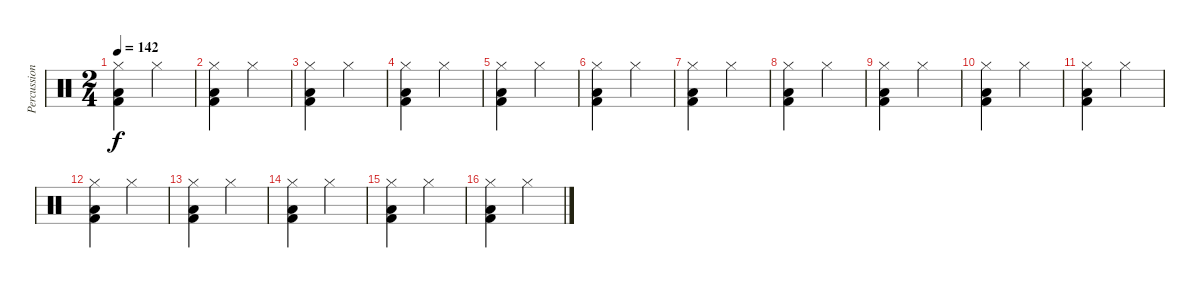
\track ("Percussions" "Percussion") {instrument percussion}
\staff {score}
\articulation defaults
\ts (2 4)
\tempo 142
\clef neutral
\ks c
("Hi-Hat (closed)" "Low Tom (hit)" "Kick (hit) 2").4{dy f} "Hi-Hat (closed)".4 |
("Hi-Hat (closed)" "Low Tom (hit)" "Kick (hit) 2").4 "Hi-Hat (closed)".4 |
("Hi-Hat (closed)" "Low Tom (hit)" "Kick (hit) 2").4 "Hi-Hat (closed)".4 |
("Hi-Hat (closed)" "Low Tom (hit)" "Kick (hit) 2").4 "Hi-Hat (closed)".4 |
("Hi-Hat (closed)" "Low Tom (hit)" "Kick (hit) 2").4 "Hi-Hat (closed)".4 |
("Hi-Hat (closed)" "Low Tom (hit)" "Kick (hit) 2").4 "Hi-Hat (closed)".4 |
("Hi-Hat (closed)" "Low Tom (hit)" "Kick (hit) 2").4 "Hi-Hat (closed)".4 |
("Hi-Hat (closed)" "Low Tom (hit)" "Kick (hit) 2").4 "Hi-Hat (closed)".4 |
("Hi-Hat (closed)" "Low Tom (hit)" "Kick (hit) 2").4 "Hi-Hat (closed)".4 |
("Hi-Hat (closed)" "Low Tom (hit)" "Kick (hit) 2").4 "Hi-Hat (closed)".4 |
("Hi-Hat (closed)" "Low Tom (hit)" "Kick (hit) 2").4 "Hi-Hat (closed)".4 |
("Hi-Hat (closed)" "Low Tom (hit)" "Kick (hit) 2").4 "Hi-Hat (closed)".4 |
("Hi-Hat (closed)" "Low Tom (hit)" "Kick (hit) 2").4 "Hi-Hat (closed)".4 |
("Hi-Hat (closed)" "Low Tom (hit)" "Kick (hit) 2").4 "Hi-Hat (closed)".4 |
("Hi-Hat (closed)" "Low Tom (hit)" "Kick (hit) 2").4 "Hi-Hat (closed)".4 |
("Hi-Hat (closed)" "Low Tom (hit)" "Kick (hit) 2").4 "Hi-Hat (closed)".4
